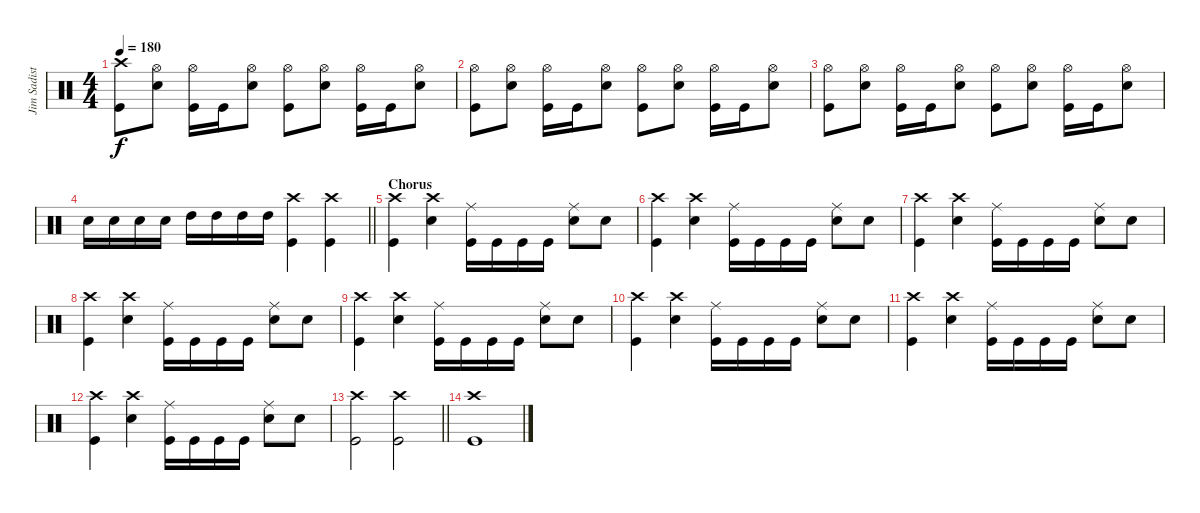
\track ("Jim Sadist" "Jim Sadist") {instrument percussion}
\staff {score}
\articulation defaults
\ts (4 4)
\tempo 180
\clef neutral
\ks c
("Kick (hit)" "Crash high (hit)").8{dy f} ("Electric Snare (hit)" "Hi-Hat (open)").8 ("Kick (hit)" "Hi-Hat (open)").16 "Kick (hit)".16 ("Electric Snare (hit)" "Hi-Hat (open)").8 ("Kick (hit)" "Hi-Hat (open)").8 ("Electric Snare (hit)" "Hi-Hat (open)").8 ("Kick (hit)" "Hi-Hat (open)").16 "Kick (hit)".16 ("Electric Snare (hit)" "Hi-Hat (open)").8 |
("Kick (hit)" "Hi-Hat (open)").8 ("Electric Snare (hit)" "Hi-Hat (open)").8 ("Kick (hit)" "Hi-Hat (open)").16 "Kick (hit)".16 ("Electric Snare (hit)" "Hi-Hat (open)").8 ("Kick (hit)" "Hi-Hat (open)").8 ("Electric Snare (hit)" "Hi-Hat (open)").8 ("Kick (hit)" "Hi-Hat (open)").16 "Kick (hit)".16 ("Electric Snare (hit)" "Hi-Hat (open)").8 |
("Kick (hit)" "Hi-Hat (open)").8 ("Electric Snare (hit)" "Hi-Hat (open)").8 ("Kick (hit)" "Hi-Hat (open)").16 "Kick (hit)".16 ("Electric Snare (hit)" "Hi-Hat (open)").8 ("Kick (hit)" "Hi-Hat (open)").8 ("Electric Snare (hit)" "Hi-Hat (open)").8 ("Kick (hit)" "Hi-Hat (open)").16 "Kick (hit)".16 ("Electric Snare (hit)" "Hi-Hat (open)").8 |
\barLineRight lightlight "Electric Snare (hit)".16 "Electric Snare (hit)".16 "Electric Snare (hit)".16 "Electric Snare (hit)".16 "High Tom (hit)".16 "High Tom (hit)".16 "High Tom (hit)".16 "High Tom (hit)".16
("Crash high (hit)" "Kick (hit)").4 ("Crash high (hit)" "Kick (hit)").4 |
\section ("" "Chorus")
("Crash high (hit)" "Kick (hit)").4 ("Crash high (hit)" "Electric Snare (hit)").4 ("Kick (hit)" "Ride (middle)").16 "Kick (hit)".16 "Kick (hit)".16 "Kick (hit)".16 ("Electric Snare (hit)" "Ride (middle)").8 "Electric Snare (hit)".8 |
("Crash high (hit)" "Kick (hit)").4 ("Crash high (hit)" "Electric Snare (hit)").4 ("Kick (hit)" "Ride (middle)").16 "Kick (hit)".16 "Kick (hit)".16 "Kick (hit)".16 ("Electric Snare (hit)" "Ride (middle)").8 "Electric Snare (hit)".8 |
("Crash high (hit)" "Kick (hit)").4 ("Crash high (hit)" "Electric Snare (hit)").4 ("Kick (hit)" "Ride (middle)").16 "Kick (hit)".16 "Kick (hit)".16 "Kick (hit)".16 ("Electric Snare (hit)" "Ride (middle)").8 "Electric Snare (hit)".8 |
("Crash high (hit)" "Kick (hit)").4 ("Crash high (hit)" "Electric Snare (hit)").4 ("Kick (hit)" "Ride (middle)").16 "Kick (hit)".16 "Kick (hit)".16 "Kick (hit)".16 ("Electric Snare (hit)" "Ride (middle)").8 "Electric Snare (hit)".8 |
("Crash high (hit)" "Kick (hit)").4 ("Crash high (hit)" "Electric Snare (hit)").4 ("Kick (hit)" "Ride (middle)").16 "Kick (hit)".16 "Kick (hit)".16 "Kick (hit)".16 ("Electric Snare (hit)" "Ride (middle)").8 "Electric Snare (hit)".8 |
("Crash high (hit)" "Kick (hit)").4 ("Crash high (hit)" "Electric Snare (hit)").4 ("Kick (hit)" "Ride (middle)").16 "Kick (hit)".16 "Kick (hit)".16 "Kick (hit)".16 ("Electric Snare (hit)" "Ride (middle)").8 "Electric Snare (hit)".8 |
("Crash high (hit)" "Kick (hit)").4 ("Crash high (hit)" "Electric Snare (hit)").4 ("Kick (hit)" "Ride (middle)").16 "Kick (hit)".16 "Kick (hit)".16 "Kick (hit)".16 ("Electric Snare (hit)" "Ride (middle)").8 "Electric Snare (hit)".8 |
("Crash high (hit)" "Kick (hit)").4 ("Crash high (hit)" "Electric Snare (hit)").4 ("Kick (hit)" "Ride (middle)").16 "Kick (hit)".16 "Kick (hit)".16 "Kick (hit)".16 ("Electric Snare (hit)" "Ride (middle)").8 "Electric Snare (hit)".8 |
\barLineRight lightlight
("Crash high (hit)" "Kick (hit)").2 ("Crash high (hit)" "Kick (hit)").2 |
("Crash high (hit)" "Kick (hit)").1
